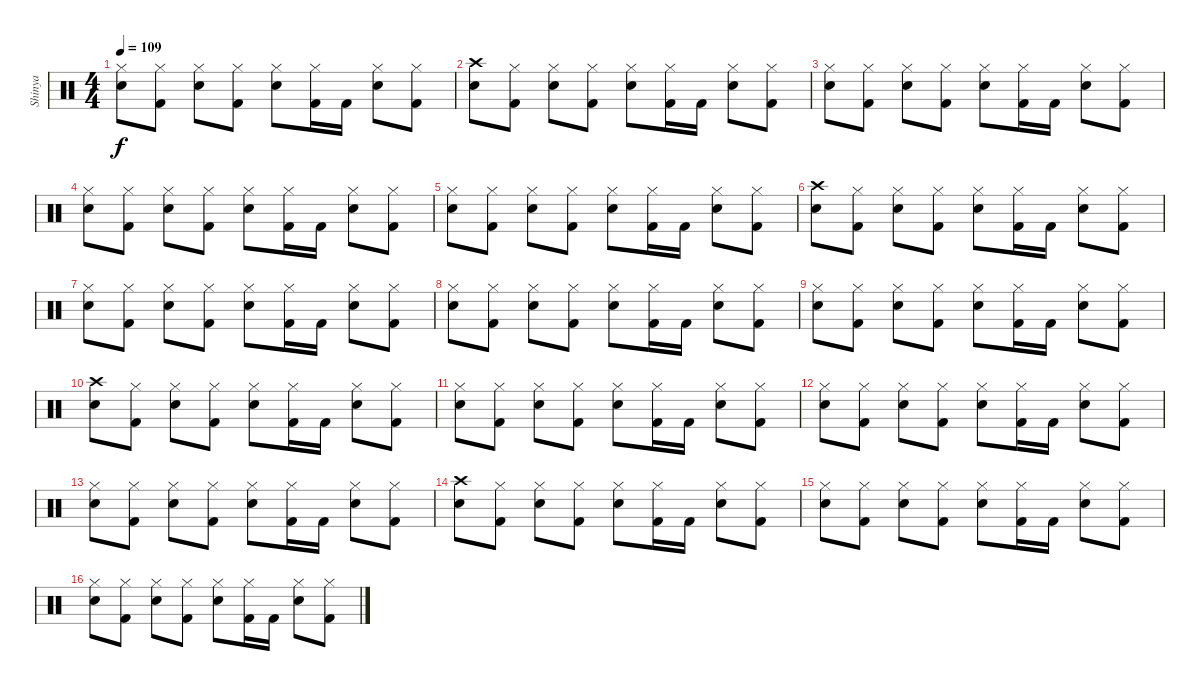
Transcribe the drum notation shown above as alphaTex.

\track ("Shinya" "Shinya") {instrument percussion}
\staff {score}
\articulation defaults
\ts (4 4)
\tempo 109
\clef neutral
\ks c
("Hi-Hat (closed)" "Snare (hit) 2").8{dy f} ("Hi-Hat (closed)" "Kick (hit) 2").8 ("Hi-Hat (closed)" "Snare (hit) 2").8 ("Hi-Hat (closed)" "Kick (hit) 2").8 ("Hi-Hat (closed)" "Snare (hit) 2").8 ("Hi-Hat (closed)" "Kick (hit) 2").16 "Kick (hit) 2".16 ("Hi-Hat (closed)" "Snare (hit) 2").8 ("Hi-Hat (closed)" "Kick (hit) 2").8 |
("Crash high (hit)" "Snare (hit) 2").8 ("Hi-Hat (closed)" "Kick (hit) 2").8 ("Hi-Hat (closed)" "Snare (hit) 2").8 ("Hi-Hat (closed)" "Kick (hit) 2").8 ("Hi-Hat (closed)" "Snare (hit) 2").8 ("Hi-Hat (closed)" "Kick (hit) 2").16 "Kick (hit) 2".16 ("Hi-Hat (closed)" "Snare (hit) 2").8 ("Hi-Hat (closed)" "Kick (hit) 2").8 |
("Hi-Hat (closed)" "Snare (hit) 2").8 ("Hi-Hat (closed)" "Kick (hit) 2").8 ("Hi-Hat (closed)" "Snare (hit) 2").8 ("Hi-Hat (closed)" "Kick (hit) 2").8 ("Hi-Hat (closed)" "Snare (hit) 2").8 ("Hi-Hat (closed)" "Kick (hit) 2").16 "Kick (hit) 2".16 ("Hi-Hat (closed)" "Snare (hit) 2").8 ("Hi-Hat (closed)" "Kick (hit) 2").8 |
("Hi-Hat (closed)" "Snare (hit) 2").8 ("Hi-Hat (closed)" "Kick (hit) 2").8 ("Hi-Hat (closed)" "Snare (hit) 2").8 ("Hi-Hat (closed)" "Kick (hit) 2").8 ("Hi-Hat (closed)" "Snare (hit) 2").8 ("Hi-Hat (closed)" "Kick (hit) 2").16 "Kick (hit) 2".16 ("Hi-Hat (closed)" "Snare (hit) 2").8 ("Hi-Hat (closed)" "Kick (hit) 2").8 |
("Hi-Hat (closed)" "Snare (hit) 2").8 ("Hi-Hat (closed)" "Kick (hit) 2").8 ("Hi-Hat (closed)" "Snare (hit) 2").8 ("Hi-Hat (closed)" "Kick (hit) 2").8 ("Hi-Hat (closed)" "Snare (hit) 2").8 ("Hi-Hat (closed)" "Kick (hit) 2").16 "Kick (hit) 2".16 ("Hi-Hat (closed)" "Snare (hit) 2").8 ("Hi-Hat (closed)" "Kick (hit) 2").8 |
("Crash high (hit)" "Snare (hit) 2").8 ("Hi-Hat (closed)" "Kick (hit) 2").8 ("Hi-Hat (closed)" "Snare (hit) 2").8 ("Hi-Hat (closed)" "Kick (hit) 2").8 ("Hi-Hat (closed)" "Snare (hit) 2").8 ("Hi-Hat (closed)" "Kick (hit) 2").16 "Kick (hit) 2".16 ("Hi-Hat (closed)" "Snare (hit) 2").8 ("Hi-Hat (closed)" "Kick (hit) 2").8 |
("Hi-Hat (closed)" "Snare (hit) 2").8 ("Hi-Hat (closed)" "Kick (hit) 2").8 ("Hi-Hat (closed)" "Snare (hit) 2").8 ("Hi-Hat (closed)" "Kick (hit) 2").8 ("Hi-Hat (closed)" "Snare (hit) 2").8 ("Hi-Hat (closed)" "Kick (hit) 2").16 "Kick (hit) 2".16 ("Hi-Hat (closed)" "Snare (hit) 2").8 ("Hi-Hat (closed)" "Kick (hit) 2").8 |
("Hi-Hat (closed)" "Snare (hit) 2").8 ("Hi-Hat (closed)" "Kick (hit) 2").8 ("Hi-Hat (closed)" "Snare (hit) 2").8 ("Hi-Hat (closed)" "Kick (hit) 2").8 ("Hi-Hat (closed)" "Snare (hit) 2").8 ("Hi-Hat (closed)" "Kick (hit) 2").16 "Kick (hit) 2".16 ("Hi-Hat (closed)" "Snare (hit) 2").8 ("Hi-Hat (closed)" "Kick (hit) 2").8 |
("Hi-Hat (closed)" "Snare (hit) 2").8 ("Hi-Hat (closed)" "Kick (hit) 2").8 ("Hi-Hat (closed)" "Snare (hit) 2").8 ("Hi-Hat (closed)" "Kick (hit) 2").8 ("Hi-Hat (closed)" "Snare (hit) 2").8 ("Hi-Hat (closed)" "Kick (hit) 2").16 "Kick (hit) 2".16 ("Hi-Hat (closed)" "Snare (hit) 2").8 ("Hi-Hat (closed)" "Kick (hit) 2").8 |
("Crash high (hit)" "Snare (hit) 2").8 ("Hi-Hat (closed)" "Kick (hit) 2").8 ("Hi-Hat (closed)" "Snare (hit) 2").8 ("Hi-Hat (closed)" "Kick (hit) 2").8 ("Hi-Hat (closed)" "Snare (hit) 2").8 ("Hi-Hat (closed)" "Kick (hit) 2").16 "Kick (hit) 2".16 ("Hi-Hat (closed)" "Snare (hit) 2").8 ("Hi-Hat (closed)" "Kick (hit) 2").8 |
("Hi-Hat (closed)" "Snare (hit) 2").8 ("Hi-Hat (closed)" "Kick (hit) 2").8 ("Hi-Hat (closed)" "Snare (hit) 2").8 ("Hi-Hat (closed)" "Kick (hit) 2").8 ("Hi-Hat (closed)" "Snare (hit) 2").8 ("Hi-Hat (closed)" "Kick (hit) 2").16 "Kick (hit) 2".16 ("Hi-Hat (closed)" "Snare (hit) 2").8 ("Hi-Hat (closed)" "Kick (hit) 2").8 |
("Hi-Hat (closed)" "Snare (hit) 2").8 ("Hi-Hat (closed)" "Kick (hit) 2").8 ("Hi-Hat (closed)" "Snare (hit) 2").8 ("Hi-Hat (closed)" "Kick (hit) 2").8 ("Hi-Hat (closed)" "Snare (hit) 2").8 ("Hi-Hat (closed)" "Kick (hit) 2").16 "Kick (hit) 2".16 ("Hi-Hat (closed)" "Snare (hit) 2").8 ("Hi-Hat (closed)" "Kick (hit) 2").8 |
("Hi-Hat (closed)" "Snare (hit) 2").8 ("Hi-Hat (closed)" "Kick (hit) 2").8 ("Hi-Hat (closed)" "Snare (hit) 2").8 ("Hi-Hat (closed)" "Kick (hit) 2").8 ("Hi-Hat (closed)" "Snare (hit) 2").8 ("Hi-Hat (closed)" "Kick (hit) 2").16 "Kick (hit) 2".16 ("Hi-Hat (closed)" "Snare (hit) 2").8 ("Hi-Hat (closed)" "Kick (hit) 2").8 |
("Crash high (hit)" "Snare (hit) 2").8 ("Hi-Hat (closed)" "Kick (hit) 2").8 ("Hi-Hat (closed)" "Snare (hit) 2").8 ("Hi-Hat (closed)" "Kick (hit) 2").8 ("Hi-Hat (closed)" "Snare (hit) 2").8 ("Hi-Hat (closed)" "Kick (hit) 2").16 "Kick (hit) 2".16 ("Hi-Hat (closed)" "Snare (hit) 2").8 ("Hi-Hat (closed)" "Kick (hit) 2").8 |
("Hi-Hat (closed)" "Snare (hit) 2").8 ("Hi-Hat (closed)" "Kick (hit) 2").8 ("Hi-Hat (closed)" "Snare (hit) 2").8 ("Hi-Hat (closed)" "Kick (hit) 2").8 ("Hi-Hat (closed)" "Snare (hit) 2").8 ("Hi-Hat (closed)" "Kick (hit) 2").16 "Kick (hit) 2".16 ("Hi-Hat (closed)" "Snare (hit) 2").8 ("Hi-Hat (closed)" "Kick (hit) 2").8 |
("Hi-Hat (closed)" "Snare (hit) 2").8 ("Hi-Hat (closed)" "Kick (hit) 2").8 ("Hi-Hat (closed)" "Snare (hit) 2").8 ("Hi-Hat (closed)" "Kick (hit) 2").8 ("Hi-Hat (closed)" "Snare (hit) 2").8 ("Hi-Hat (closed)" "Kick (hit) 2").16 "Kick (hit) 2".16 ("Hi-Hat (closed)" "Snare (hit) 2").8 ("Hi-Hat (closed)" "Kick (hit) 2").8
